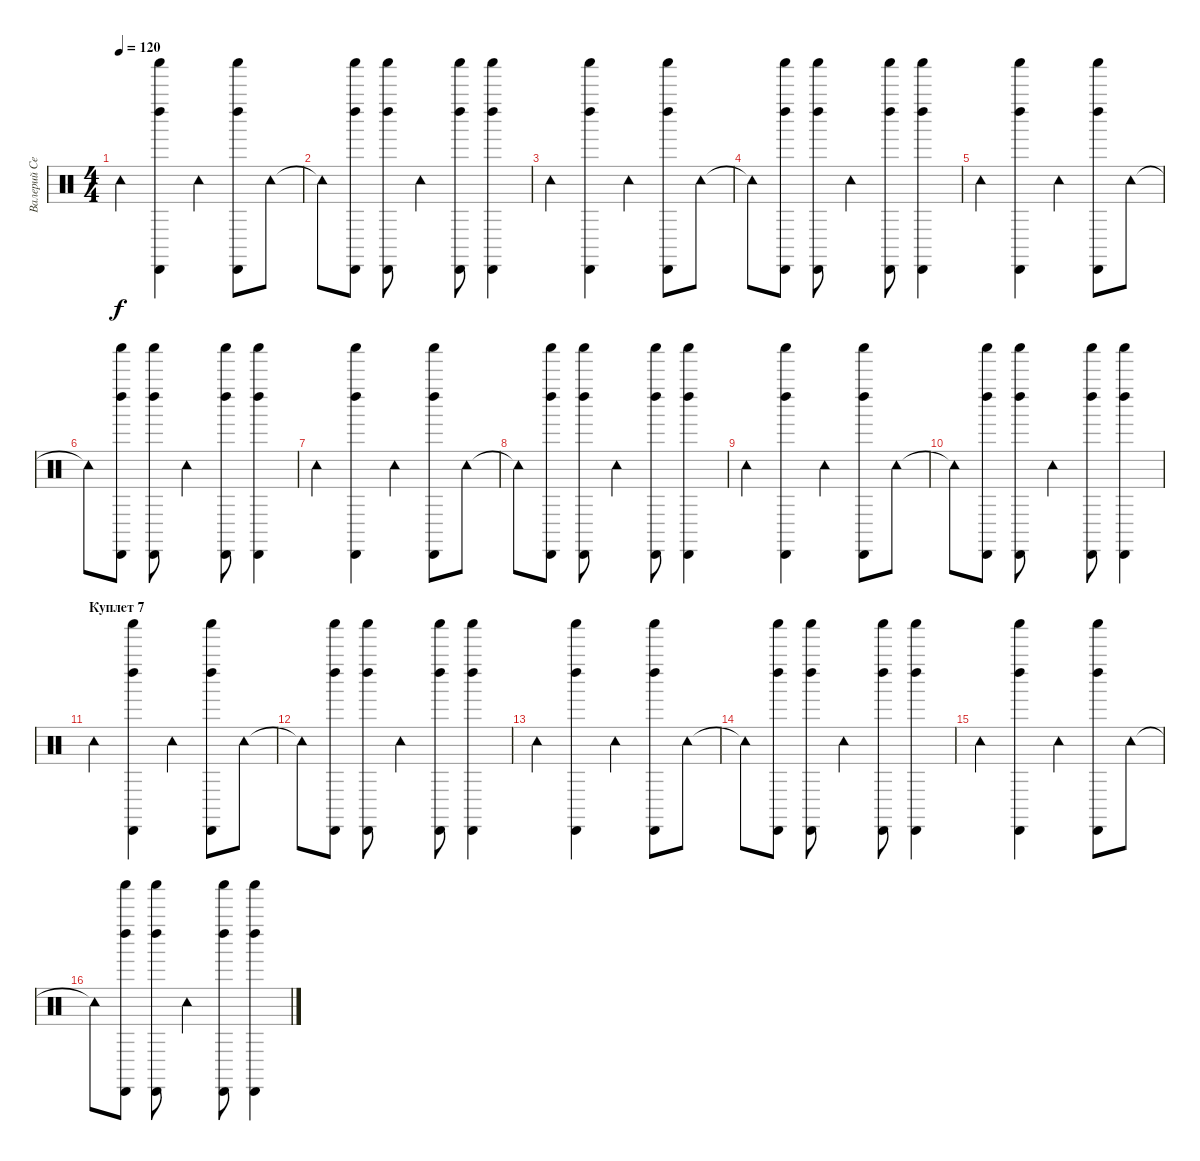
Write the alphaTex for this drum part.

\track ("Валерий Северин" "Валерий Се") {instrument percussion}
\staff {score}
\articulation defaults
\ts (4 4)
\tempo 120
\clef neutral
\ks c "Tambourine (hit)".4{dy f}
("Left Maraca (hit)" "Cabasa (hit)" "Shaker (hit)").4 "Tambourine (hit)".4 ("Left Maraca (hit)" "Cabasa (hit)" "Shaker (hit)").8 "Tambourine (hit)".8 |
"Tambourine (hit)"{t}.8 ("Left Maraca (hit)" "Cabasa (hit)" "Shaker (hit)").8 ("Left Maraca (hit)" "Cabasa (hit)" "Shaker (hit)").8 "Tambourine (hit)".4 ("Left Maraca (hit)" "Cabasa (hit)" "Shaker (hit)").8 ("Left Maraca (hit)" "Cabasa (hit)" "Shaker (hit)").4 |
"Tambourine (hit)".4 ("Left Maraca (hit)" "Cabasa (hit)" "Shaker (hit)").4 "Tambourine (hit)".4 ("Left Maraca (hit)" "Cabasa (hit)" "Shaker (hit)").8 "Tambourine (hit)".8 |
"Tambourine (hit)"{t}.8 ("Left Maraca (hit)" "Cabasa (hit)" "Shaker (hit)").8 ("Left Maraca (hit)" "Cabasa (hit)" "Shaker (hit)").8 "Tambourine (hit)".4 ("Left Maraca (hit)" "Cabasa (hit)" "Shaker (hit)").8 ("Left Maraca (hit)" "Cabasa (hit)" "Shaker (hit)").4 |
"Tambourine (hit)".4 ("Left Maraca (hit)" "Cabasa (hit)" "Shaker (hit)").4 "Tambourine (hit)".4 ("Left Maraca (hit)" "Cabasa (hit)" "Shaker (hit)").8 "Tambourine (hit)".8 |
"Tambourine (hit)"{t}.8 ("Left Maraca (hit)" "Cabasa (hit)" "Shaker (hit)").8 ("Left Maraca (hit)" "Cabasa (hit)" "Shaker (hit)").8 "Tambourine (hit)".4 ("Left Maraca (hit)" "Cabasa (hit)" "Shaker (hit)").8 ("Left Maraca (hit)" "Cabasa (hit)" "Shaker (hit)").4 |
"Tambourine (hit)".4 ("Left Maraca (hit)" "Cabasa (hit)" "Shaker (hit)").4 "Tambourine (hit)".4 ("Left Maraca (hit)" "Cabasa (hit)" "Shaker (hit)").8 "Tambourine (hit)".8 |
"Tambourine (hit)"{t}.8 ("Left Maraca (hit)" "Cabasa (hit)" "Shaker (hit)").8 ("Left Maraca (hit)" "Cabasa (hit)" "Shaker (hit)").8 "Tambourine (hit)".4 ("Left Maraca (hit)" "Cabasa (hit)" "Shaker (hit)").8 ("Left Maraca (hit)" "Cabasa (hit)" "Shaker (hit)").4 |
"Tambourine (hit)".4 ("Left Maraca (hit)" "Cabasa (hit)" "Shaker (hit)").4 "Tambourine (hit)".4 ("Left Maraca (hit)" "Cabasa (hit)" "Shaker (hit)").8 "Tambourine (hit)".8 |
"Tambourine (hit)"{t}.8 ("Left Maraca (hit)" "Cabasa (hit)" "Shaker (hit)").8 ("Left Maraca (hit)" "Cabasa (hit)" "Shaker (hit)").8 "Tambourine (hit)".4 ("Left Maraca (hit)" "Cabasa (hit)" "Shaker (hit)").8 ("Left Maraca (hit)" "Cabasa (hit)" "Shaker (hit)").4 |
\section ("" "Куплет 7")
"Tambourine (hit)".4 ("Left Maraca (hit)" "Cabasa (hit)" "Shaker (hit)").4 "Tambourine (hit)".4 ("Left Maraca (hit)" "Cabasa (hit)" "Shaker (hit)").8 "Tambourine (hit)".8 |
"Tambourine (hit)"{t}.8 ("Left Maraca (hit)" "Cabasa (hit)" "Shaker (hit)").8 ("Left Maraca (hit)" "Cabasa (hit)" "Shaker (hit)").8 "Tambourine (hit)".4 ("Left Maraca (hit)" "Cabasa (hit)" "Shaker (hit)").8 ("Left Maraca (hit)" "Cabasa (hit)" "Shaker (hit)").4 |
"Tambourine (hit)".4 ("Left Maraca (hit)" "Cabasa (hit)" "Shaker (hit)").4 "Tambourine (hit)".4 ("Left Maraca (hit)" "Cabasa (hit)" "Shaker (hit)").8 "Tambourine (hit)".8 |
"Tambourine (hit)"{t}.8 ("Left Maraca (hit)" "Cabasa (hit)" "Shaker (hit)").8 ("Left Maraca (hit)" "Cabasa (hit)" "Shaker (hit)").8 "Tambourine (hit)".4 ("Left Maraca (hit)" "Cabasa (hit)" "Shaker (hit)").8 ("Left Maraca (hit)" "Cabasa (hit)" "Shaker (hit)").4 |
"Tambourine (hit)".4 ("Left Maraca (hit)" "Cabasa (hit)" "Shaker (hit)").4 "Tambourine (hit)".4 ("Left Maraca (hit)" "Cabasa (hit)" "Shaker (hit)").8 "Tambourine (hit)".8 |
"Tambourine (hit)"{t}.8 ("Left Maraca (hit)" "Cabasa (hit)" "Shaker (hit)").8 ("Left Maraca (hit)" "Cabasa (hit)" "Shaker (hit)").8 "Tambourine (hit)".4 ("Left Maraca (hit)" "Cabasa (hit)" "Shaker (hit)").8 ("Left Maraca (hit)" "Cabasa (hit)" "Shaker (hit)").4
